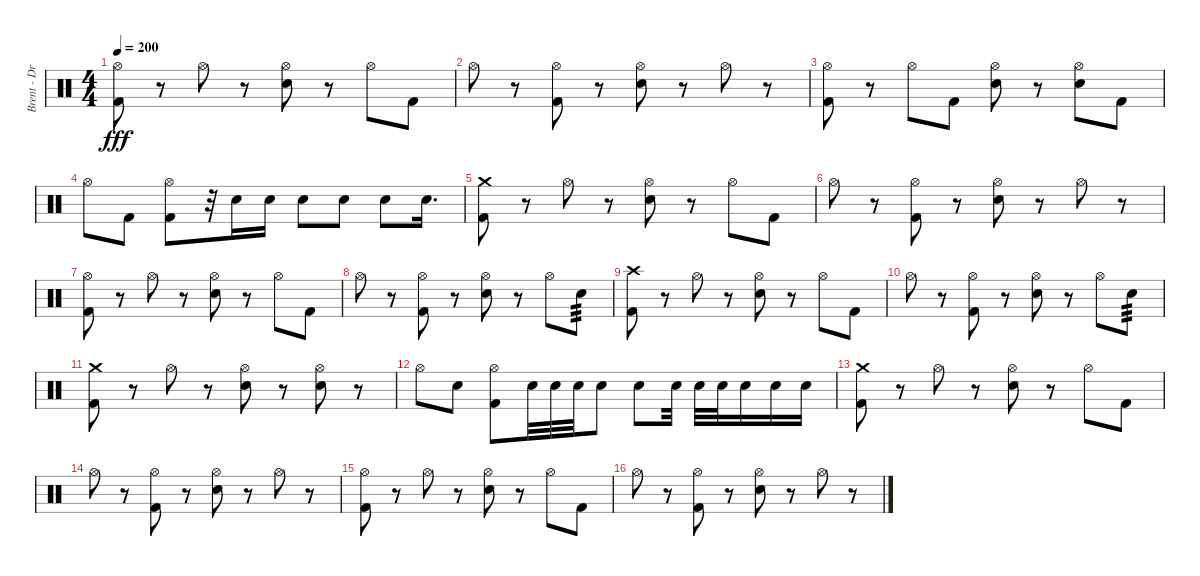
\track ("Brent - Drums" "Brent - Dr") {instrument percussion}
\staff {score}
\articulation defaults
\ts (4 4)
\tempo 200
\clef neutral
\ks c
("Hi-Hat (open)" "Kick (hit) 2").8{dy fff} r.8 "Hi-Hat (open)".8 r.8 ("Hi-Hat (open)" "Snare (hit) 2").8 r.8 "Hi-Hat (open)".8 "Kick (hit) 2".8 |
"Hi-Hat (open)".8 r.8 ("Hi-Hat (open)" "Kick (hit) 2").8 r.8 ("Hi-Hat (open)" "Snare (hit) 2").8 r.8 "Hi-Hat (open)".8 r.8 |
("Hi-Hat (open)" "Kick (hit) 2").8 r.8 "Hi-Hat (open)".8 "Kick (hit) 2".8 ("Hi-Hat (open)" "Snare (hit) 2").8 r.8 ("Hi-Hat (open)" "Snare (hit) 2").8 "Kick (hit) 2".8 |
"Hi-Hat (open)".8 "Kick (hit) 2".8 ("Hi-Hat (open)" "Kick (hit) 2").8 r.32 "Snare (hit) 2".16 "Snare (hit) 2".16 "Snare (hit) 2".8 "Snare (hit) 2".8 "Snare (hit) 2".8 "Snare (hit) 2".16{d} |
("Crash medium (hit)" "Kick (hit) 2").8 r.8 "Hi-Hat (open)".8 r.8 ("Hi-Hat (open)" "Snare (hit) 2").8 r.8 "Hi-Hat (open)".8 "Kick (hit) 2".8 |
"Hi-Hat (open)".8 r.8 ("Hi-Hat (open)" "Kick (hit) 2").8 r.8 ("Hi-Hat (open)" "Snare (hit) 2").8 r.8 "Hi-Hat (open)".8 r.8 |
("Hi-Hat (open)" "Kick (hit) 2").8 r.8 "Hi-Hat (open)".8 r.8 ("Hi-Hat (open)" "Snare (hit) 2").8 r.8 "Hi-Hat (open)".8 "Kick (hit) 2".8 |
"Hi-Hat (open)".8 r.8 ("Hi-Hat (open)" "Kick (hit) 2").8 r.8 ("Hi-Hat (open)" "Snare (hit) 2").8 r.8 "Hi-Hat (open)".8 "Snare (hit) 2".8{tp 3} |
("Crash high (hit)" "Kick (hit) 2").8 r.8 "Hi-Hat (open)".8 r.8 ("Hi-Hat (open)" "Snare (hit) 2").8 r.8 "Hi-Hat (open)".8 "Kick (hit) 2".8 |
"Hi-Hat (open)".8 r.8 ("Hi-Hat (open)" "Kick (hit) 2").8 r.8 ("Hi-Hat (open)" "Snare (hit) 2").8 r.8 "Hi-Hat (open)".8 "Snare (hit) 2".8{tp 3} |
("Crash medium (hit)" "Kick (hit) 2").8 r.8 "Hi-Hat (open)".8 r.8 ("Hi-Hat (open)" "Snare (hit) 2").8 r.8 ("Hi-Hat (open)" "Snare (hit) 2").8 r.8 |
"Hi-Hat (open)".8 "Snare (hit) 2".8 ("Hi-Hat (open)" "Kick (hit) 2").8 "Snare (hit) 2".32 "Snare (hit) 2".32 "Snare (hit) 2".32 "Snare (hit) 2".8 "Snare (hit) 2".8 "Snare (hit) 2".32 "Snare (hit) 2".32 "Snare (hit) 2".32 "Snare (hit) 2".16 "Snare (hit) 2".16 "Snare (hit) 2".16 |
("Crash medium (hit)" "Kick (hit) 2").8 r.8 "Hi-Hat (open)".8 r.8 ("Hi-Hat (open)" "Snare (hit) 2").8 r.8 "Hi-Hat (open)".8 "Kick (hit) 2".8 |
"Hi-Hat (open)".8 r.8 ("Hi-Hat (open)" "Kick (hit) 2").8 r.8 ("Hi-Hat (open)" "Snare (hit) 2").8 r.8 "Hi-Hat (open)".8 r.8 |
("Hi-Hat (open)" "Kick (hit) 2").8 r.8 "Hi-Hat (open)".8 r.8 ("Hi-Hat (open)" "Snare (hit) 2").8 r.8 "Hi-Hat (open)".8 "Kick (hit) 2".8 |
"Hi-Hat (open)".8 r.8 ("Hi-Hat (open)" "Kick (hit) 2").8 r.8 ("Hi-Hat (open)" "Snare (hit) 2").8 r.8 "Hi-Hat (open)".8 r.8
